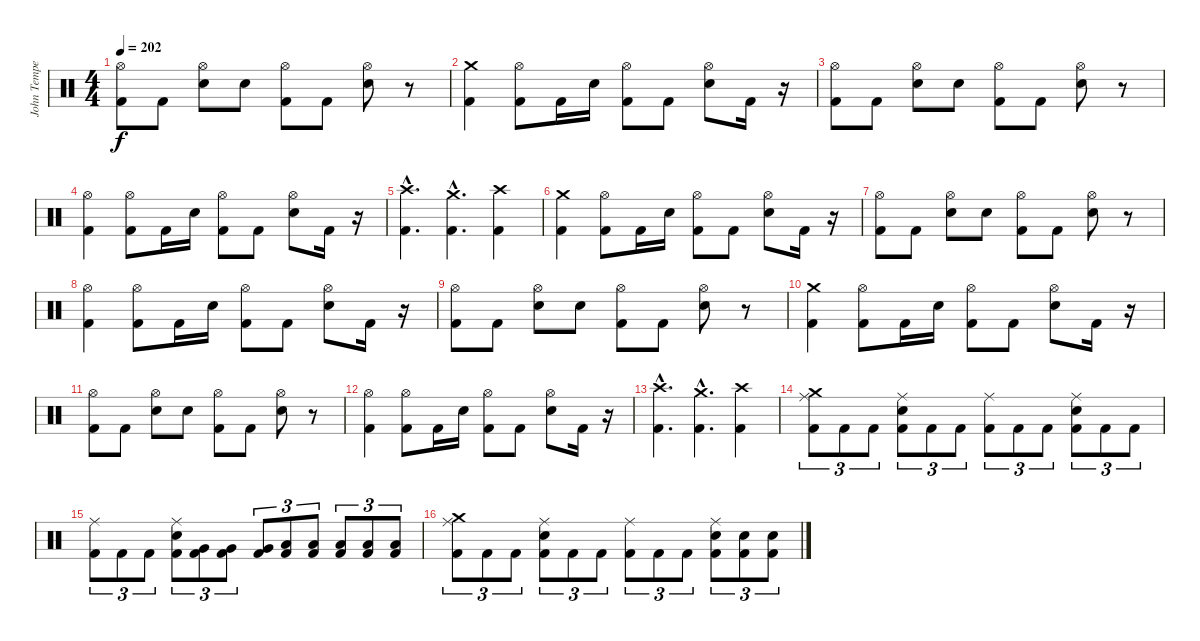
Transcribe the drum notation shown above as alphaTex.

\track ("John Tempesta" "John Tempe") {instrument percussion}
\staff {score}
\articulation defaults
\ts (4 4)
\tempo 202
\clef neutral
\ks c
("Kick (hit) 2" "Hi-Hat (open)").8{dy f} "Kick (hit) 2".8 ("Snare (hit) 2" "Hi-Hat (open)").8 "Snare (hit) 2".8 ("Kick (hit) 2" "Hi-Hat (open)").8 "Kick (hit) 2".8 ("Snare (hit) 2" "Hi-Hat (open)").8 r.8 |
("Kick (hit) 2" "Crash medium (hit)").4 ("Kick (hit) 2" "Hi-Hat (open)").8 "Kick (hit) 2".16 "Snare (hit) 2".16 ("Hi-Hat (open)" "Kick (hit) 2").8 "Kick (hit) 2".8 ("Snare (hit) 2" "Hi-Hat (open)").8 "Kick (hit) 2".16 r.16 |
("Kick (hit) 2" "Hi-Hat (open)").8 "Kick (hit) 2".8 ("Snare (hit) 2" "Hi-Hat (open)").8 "Snare (hit) 2".8 ("Kick (hit) 2" "Hi-Hat (open)").8 "Kick (hit) 2".8 ("Snare (hit) 2" "Hi-Hat (open)").8 r.8 |
("Kick (hit) 2" "Hi-Hat (open)").4 ("Kick (hit) 2" "Hi-Hat (open)").8 "Kick (hit) 2".16 "Snare (hit) 2".16 ("Hi-Hat (open)" "Kick (hit) 2").8 "Kick (hit) 2".8 ("Snare (hit) 2" "Hi-Hat (open)").8 "Kick (hit) 2".16 r.16 |
("Kick (hit) 2"{hac} "Crash high (hit)"{hac}).4{d} ("Kick (hit) 2"{hac} "Crash medium (hit)"{hac}).4{d} ("Kick (hit) 2" "Crash high (hit)").4 |
("Kick (hit) 2" "Crash medium (hit)").4 ("Kick (hit) 2" "Hi-Hat (open)").8 "Kick (hit) 2".16 "Snare (hit) 2".16 ("Hi-Hat (open)" "Kick (hit) 2").8 "Kick (hit) 2".8 ("Snare (hit) 2" "Hi-Hat (open)").8 "Kick (hit) 2".16 r.16 |
("Kick (hit) 2" "Hi-Hat (open)").8 "Kick (hit) 2".8 ("Snare (hit) 2" "Hi-Hat (open)").8 "Snare (hit) 2".8 ("Kick (hit) 2" "Hi-Hat (open)").8 "Kick (hit) 2".8 ("Snare (hit) 2" "Hi-Hat (open)").8 r.8 |
("Kick (hit) 2" "Hi-Hat (open)").4 ("Kick (hit) 2" "Hi-Hat (open)").8 "Kick (hit) 2".16 "Snare (hit) 2".16 ("Hi-Hat (open)" "Kick (hit) 2").8 "Kick (hit) 2".8 ("Snare (hit) 2" "Hi-Hat (open)").8 "Kick (hit) 2".16 r.16 |
("Kick (hit) 2" "Hi-Hat (open)").8 "Kick (hit) 2".8 ("Snare (hit) 2" "Hi-Hat (open)").8 "Snare (hit) 2".8 ("Kick (hit) 2" "Hi-Hat (open)").8 "Kick (hit) 2".8 ("Snare (hit) 2" "Hi-Hat (open)").8 r.8 |
("Kick (hit) 2" "Crash medium (hit)").4 ("Kick (hit) 2" "Hi-Hat (open)").8 "Kick (hit) 2".16 "Snare (hit) 2".16 ("Hi-Hat (open)" "Kick (hit) 2").8 "Kick (hit) 2".8 ("Snare (hit) 2" "Hi-Hat (open)").8 "Kick (hit) 2".16 r.16 |
("Kick (hit) 2" "Hi-Hat (open)").8 "Kick (hit) 2".8 ("Snare (hit) 2" "Hi-Hat (open)").8 "Snare (hit) 2".8 ("Kick (hit) 2" "Hi-Hat (open)").8 "Kick (hit) 2".8 ("Snare (hit) 2" "Hi-Hat (open)").8 r.8 |
("Kick (hit) 2" "Hi-Hat (open)").4 ("Kick (hit) 2" "Hi-Hat (open)").8 "Kick (hit) 2".16 "Snare (hit) 2".16 ("Hi-Hat (open)" "Kick (hit) 2").8 "Kick (hit) 2".8 ("Snare (hit) 2" "Hi-Hat (open)").8 "Kick (hit) 2".16 r.16 |
("Kick (hit) 2"{hac} "Crash high (hit)"{hac}).4{d} ("Kick (hit) 2"{hac} "Crash medium (hit)"{hac}).4{d} ("Kick (hit) 2" "Crash high (hit)").4 |
("Kick (hit) 2" "Ride (middle)" "Crash medium (hit)").8{tu (3 2)} "Kick (hit) 2".8{tu (3 2)} "Kick (hit) 2".8{tu (3 2)} ("Kick (hit) 2" "Snare (hit) 2" "Ride (middle)").8{tu (3 2)} "Kick (hit) 2".8{tu (3 2)} "Kick (hit) 2".8{tu (3 2)} ("Kick (hit) 2" "Ride (middle)").8{tu (3 2)} "Kick (hit) 2".8{tu (3 2)} "Kick (hit) 2".8{tu (3 2)} ("Kick (hit) 2" "Snare (hit) 2" "Ride (middle)").8{tu (3 2)} "Kick (hit) 2".8{tu (3 2)} "Kick (hit) 2".8{tu (3 2)} |
("Kick (hit) 2" "Ride (middle)").8{tu (3 2)} "Kick (hit) 2".8{tu (3 2)} "Kick (hit) 2".8{tu (3 2)} ("Kick (hit) 2" "Snare (hit) 2" "Ride (middle)").8{tu (3 2)} ("Kick (hit) 2" "Very Low Tom (hit)").8{tu (3 2)} ("Kick (hit) 2" "Very Low Tom (hit)").8{tu (3 2)} ("Kick (hit) 2" "Very Low Tom (hit)").8{tu (3 2)} ("Kick (hit) 2" "Low Tom (hit)").8{tu (3 2)} ("Kick (hit) 2" "Low Tom (hit)").8{tu (3 2)} ("Kick (hit) 2" "Low Tom (hit)").8{tu (3 2)} ("Kick (hit) 2" "Low Floor Tom (hit)").8{tu (3 2)} ("Kick (hit) 2" "Low Floor Tom (hit)").8{tu (3 2)} |
("Kick (hit) 2" "Ride (middle)" "Crash medium (hit)").8{tu (3 2)} "Kick (hit) 2".8{tu (3 2)} "Kick (hit) 2".8{tu (3 2)} ("Kick (hit) 2" "Snare (hit) 2" "Ride (middle)").8{tu (3 2)} "Kick (hit) 2".8{tu (3 2)} "Kick (hit) 2".8{tu (3 2)} ("Kick (hit) 2" "Ride (middle)").8{tu (3 2)} "Kick (hit) 2".8{tu (3 2)} "Kick (hit) 2".8{tu (3 2)} ("Kick (hit) 2" "Snare (hit) 2" "Ride (middle)").8{tu (3 2)} ("Kick (hit) 2" "Snare (hit) 2").8{tu (3 2)} ("Kick (hit) 2" "Snare (hit) 2").8{tu (3 2)}
